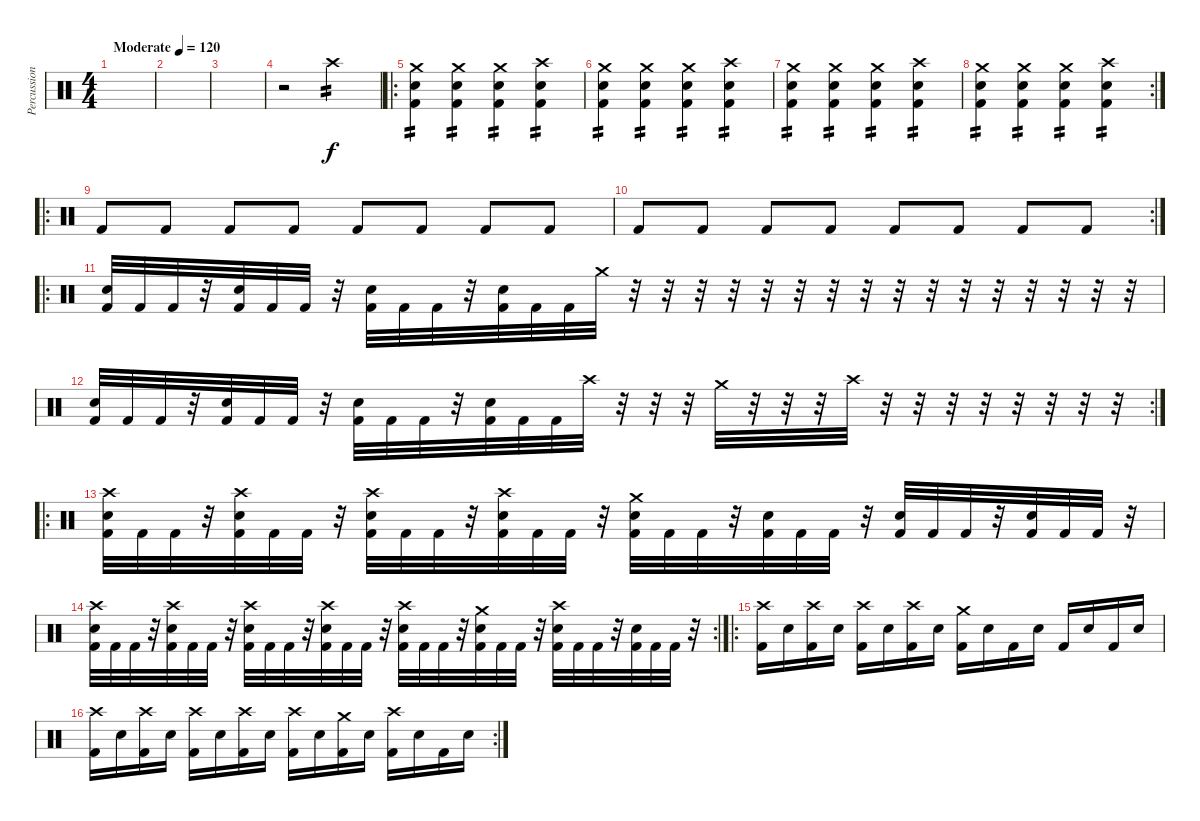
\track ("Percussion" "Percussion") {instrument percussion}
\staff {score}
\articulation defaults
\ts (4 4)
\tempo (120 "Moderate")
\clef neutral
\ks c
|
|
|
r.2 "Crash high (hit)".2{tp 2} |
\ro
("Crash medium (hit)" "Snare (hit) 2" "Kick (hit) 2").4{tp 2} ("Crash medium (hit)" "Snare (hit) 2" "Kick (hit) 2").4{tp 2} ("Crash medium (hit)" "Snare (hit) 2" "Kick (hit) 2").4{tp 2} ("Crash high (hit)" "Snare (hit) 2" "Kick (hit) 2").4{tp 2} |
("Crash medium (hit)" "Snare (hit) 2" "Kick (hit) 2").4{tp 2} ("Crash medium (hit)" "Snare (hit) 2" "Kick (hit) 2").4{tp 2} ("Crash medium (hit)" "Snare (hit) 2" "Kick (hit) 2").4{tp 2} ("Crash high (hit)" "Snare (hit) 2" "Kick (hit) 2").4{tp 2} |
("Crash medium (hit)" "Snare (hit) 2" "Kick (hit) 2").4{tp 2} ("Crash medium (hit)" "Snare (hit) 2" "Kick (hit) 2").4{tp 2} ("Crash medium (hit)" "Snare (hit) 2" "Kick (hit) 2").4{tp 2} ("Crash high (hit)" "Snare (hit) 2" "Kick (hit) 2").4{tp 2} |
\rc 2
("Crash medium (hit)" "Snare (hit) 2" "Kick (hit) 2").4{tp 2} ("Crash medium (hit)" "Snare (hit) 2" "Kick (hit) 2").4{tp 2} ("Crash medium (hit)" "Snare (hit) 2" "Kick (hit) 2").4{tp 2} ("Crash high (hit)" "Snare (hit) 2" "Kick (hit) 2").4{tp 2} |
\ro "Kick (hit) 2".8 "Kick (hit) 2".8 "Kick (hit) 2".8 "Kick (hit) 2".8 "Kick (hit) 2".8 "Kick (hit) 2".8 "Kick (hit) 2".8 "Kick (hit) 2".8
|
\rc 2 "Kick (hit) 2".8 "Kick (hit) 2".8 "Kick (hit) 2".8 "Kick (hit) 2".8 "Kick (hit) 2".8 "Kick (hit) 2".8 "Kick (hit) 2".8 "Kick (hit) 2".8
|
\ro
("Snare (hit) 2" "Kick (hit) 2").32 "Kick (hit) 2".32 "Kick (hit) 2".32 r.32 ("Snare (hit) 2" "Kick (hit) 2").32 "Kick (hit) 2".32 "Kick (hit) 2".32 r.32 ("Snare (hit) 2" "Kick (hit) 2").32 "Kick (hit) 2".32 "Kick (hit) 2".32 r.32 ("Snare (hit) 2" "Kick (hit) 2").32 "Kick (hit) 2".32 "Kick (hit) 2".32 "Crash medium (hit)".32 r.32 r.32 r.32 r.32 r.32 r.32 r.32 r.32 r.32 r.32 r.32 r.32 r.32 r.32 r.32 r.32 |
\rc 2
("Snare (hit) 2" "Kick (hit) 2").32 "Kick (hit) 2".32 "Kick (hit) 2".32 r.32 ("Snare (hit) 2" "Kick (hit) 2").32 "Kick (hit) 2".32 "Kick (hit) 2".32 r.32 ("Snare (hit) 2" "Kick (hit) 2").32 "Kick (hit) 2".32 "Kick (hit) 2".32 r.32 ("Snare (hit) 2" "Kick (hit) 2").32 "Kick (hit) 2".32 "Kick (hit) 2".32 "Crash high (hit)".32 r.32 r.32 r.32 "Crash medium (hit)".32 r.32 r.32 r.32 "Crash high (hit)".32 r.32 r.32 r.32 r.32 r.32 r.32 r.32 r.32 |
\ro
("Crash high (hit)" "Snare (hit) 2" "Kick (hit) 2").32 "Kick (hit) 2".32 "Kick (hit) 2".32 r.32 ("Crash high (hit)" "Snare (hit) 2" "Kick (hit) 2").32 "Kick (hit) 2".32 "Kick (hit) 2".32 r.32 ("Crash high (hit)" "Snare (hit) 2" "Kick (hit) 2").32 "Kick (hit) 2".32 "Kick (hit) 2".32 r.32 ("Crash high (hit)" "Snare (hit) 2" "Kick (hit) 2").32 "Kick (hit) 2".32 "Kick (hit) 2".32 r.32 ("Crash medium (hit)" "Snare (hit) 2" "Kick (hit) 2").32 "Kick (hit) 2".32 "Kick (hit) 2".32 r.32 ("Snare (hit) 2" "Kick (hit) 2").32 "Kick (hit) 2".32 "Kick (hit) 2".32 r.32 ("Snare (hit) 2" "Kick (hit) 2").32 "Kick (hit) 2".32 "Kick (hit) 2".32 r.32 ("Snare (hit) 2" "Kick (hit) 2").32 "Kick (hit) 2".32 "Kick (hit) 2".32 r.32 |
\rc 2
("Crash high (hit)" "Snare (hit) 2" "Kick (hit) 2").32 "Kick (hit) 2".32 "Kick (hit) 2".32 r.32 ("Crash high (hit)" "Snare (hit) 2" "Kick (hit) 2").32 "Kick (hit) 2".32 "Kick (hit) 2".32 r.32 ("Crash high (hit)" "Snare (hit) 2" "Kick (hit) 2").32 "Kick (hit) 2".32 "Kick (hit) 2".32 r.32 ("Crash high (hit)" "Snare (hit) 2" "Kick (hit) 2").32 "Kick (hit) 2".32 "Kick (hit) 2".32 r.32 ("Crash high (hit)" "Snare (hit) 2" "Kick (hit) 2").32 "Kick (hit) 2".32 "Kick (hit) 2".32 r.32 ("Crash medium (hit)" "Snare (hit) 2" "Kick (hit) 2").32 "Kick (hit) 2".32 "Kick (hit) 2".32 r.32 ("Crash high (hit)" "Snare (hit) 2" "Kick (hit) 2").32 "Kick (hit) 2".32 "Kick (hit) 2".32 r.32 ("Snare (hit) 2" "Kick (hit) 2").32 "Kick (hit) 2".32 "Kick (hit) 2".32 r.32 |
\ro
("Crash high (hit)" "Kick (hit) 2").16 "Snare (hit) 2".16 ("Crash high (hit)" "Kick (hit) 2").16 "Snare (hit) 2".16 ("Crash high (hit)" "Kick (hit) 2").16 "Snare (hit) 2".16 ("Crash high (hit)" "Kick (hit) 2").16 "Snare (hit) 2".16 ("Crash medium (hit)" "Kick (hit) 2").16 "Snare (hit) 2".16 "Kick (hit) 2".16 "Snare (hit) 2".16 "Kick (hit) 2".16 "Snare (hit) 2".16 "Kick (hit) 2".16 "Snare (hit) 2".16 |
\rc 2
("Crash high (hit)" "Kick (hit) 2").16 "Snare (hit) 2".16 ("Crash high (hit)" "Kick (hit) 2").16 "Snare (hit) 2".16 ("Crash high (hit)" "Kick (hit) 2").16 "Snare (hit) 2".16 ("Crash high (hit)" "Kick (hit) 2").16 "Snare (hit) 2".16 ("Crash high (hit)" "Kick (hit) 2").16 "Snare (hit) 2".16 ("Crash medium (hit)" "Kick (hit) 2").16 "Snare (hit) 2".16 ("Crash high (hit)" "Kick (hit) 2").16 "Snare (hit) 2".16 "Kick (hit) 2".16 "Snare (hit) 2".16
